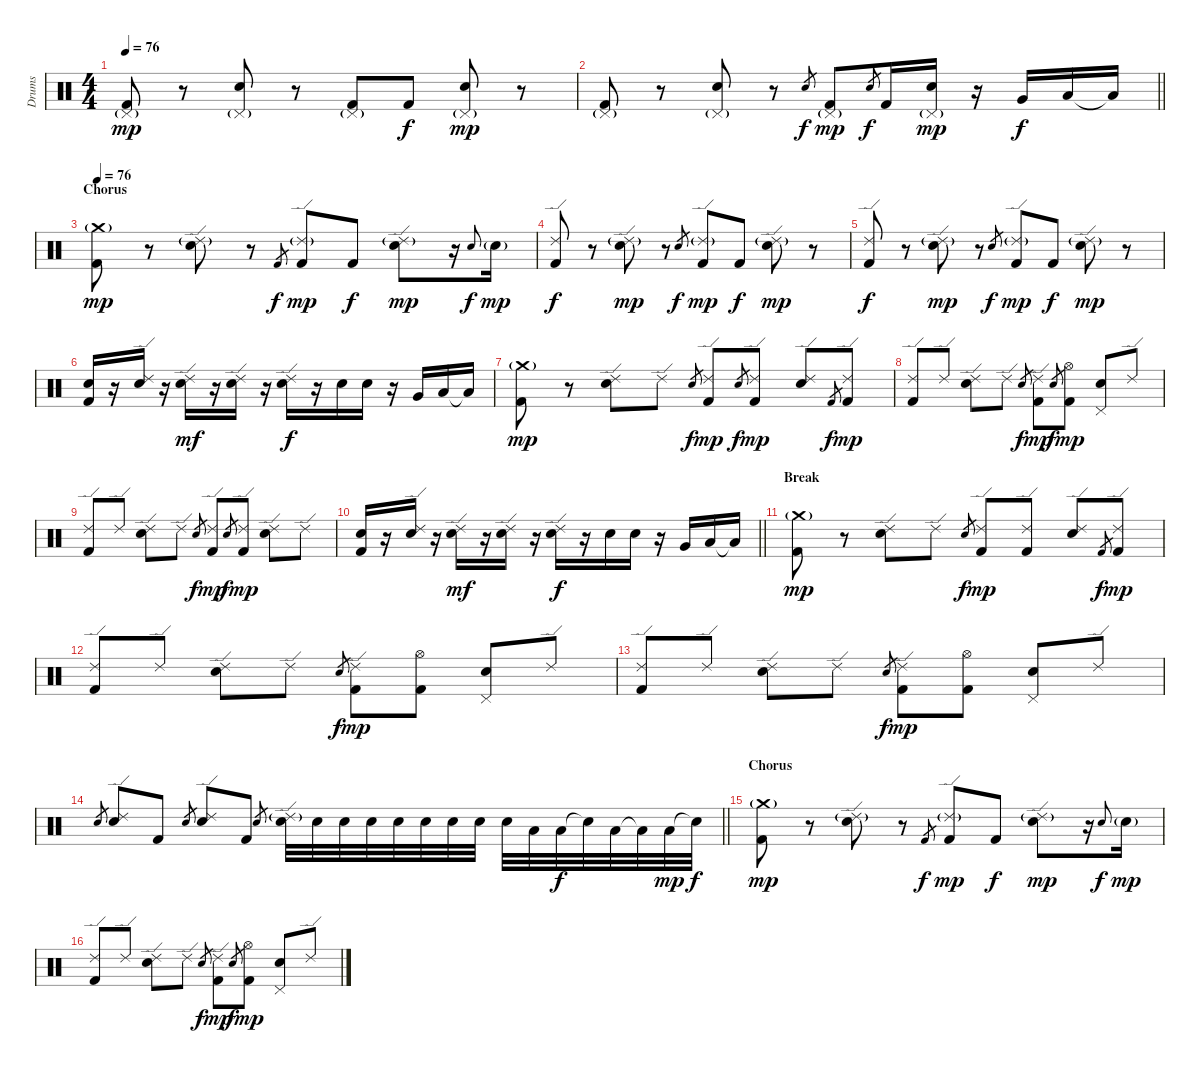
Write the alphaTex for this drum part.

\track ("Drums" "Drums") {instrument percussion}
\staff {score}
\articulation defaults
\ts (4 4)
\tempo 76
\clef neutral
\ks c
("Pedal Hi-Hat (hit)"{g} "Kick (hit) 2").8{dy mp} r.8 ("Pedal Hi-Hat (hit)"{g} "Snare (hit) 2").8 r.8 ("Pedal Hi-Hat (hit)"{g} "Kick (hit) 2").8 "Kick (hit) 2".8{dy f} ("Pedal Hi-Hat (hit)"{g} "Snare (hit) 2").8{dy mp} r.8 |
\barLineRight lightlight
("Pedal Hi-Hat (hit)"{g} "Kick (hit) 2").8 r.8 ("Pedal Hi-Hat (hit)"{g} "Snare (hit) 2").8 r.8 "Snare (hit) 2".8{gr dy f} ("Pedal Hi-Hat (hit)"{g} "Kick (hit) 2").8{dy mp} "Snare (hit) 2".8{gr dy f} "Kick (hit) 2".16 ("Pedal Hi-Hat (hit)"{g} "Snare (hit) 2").16{dy mp} r.16 "Very Low Tom (hit)".16{dy f} "Low Floor Tom (hit)".16 "Low Floor Tom (hit)"{t}.16 |
\section ("" "Chorus")
\tempo 76
("Crash medium (hit)"{g} "Kick (hit) 2").8{dy mp} r.8 ("Ride (edge) 2"{g} "Snare (hit) 2").8 r.8 "Kick (hit) 2".8{gr dy f} ("Ride (edge) 2"{g} "Kick (hit) 2").8{dy mp} "Kick (hit) 2".8{dy f} ("Ride (edge) 2"{g} "Snare (hit) 2").8{dy mp} r.16 "Snare (hit) 2".8{gr onbeat dy f} "Snare (hit) 2"{g}.16{dy mp} |
("Ride (edge) 2" "Kick (hit) 2").8{dy f} r.8 ("Ride (edge) 2"{g} "Snare (hit) 2").8{dy mp} r.8 "Snare (hit) 2".8{gr dy f} ("Ride (edge) 2"{g} "Kick (hit) 2").8{dy mp} "Kick (hit) 2".8{dy f} ("Ride (edge) 2"{g} "Snare (hit) 2").8{dy mp} r.8 |
("Ride (edge) 2" "Kick (hit) 2").8{dy f} r.8 ("Ride (edge) 2"{g} "Snare (hit) 2").8{dy mp} r.8 "Snare (hit) 2".8{gr dy f} ("Ride (edge) 2"{g} "Kick (hit) 2").8{dy mp} "Kick (hit) 2".8{dy f} ("Ride (edge) 2"{g} "Snare (hit) 2").8{dy mp} r.8 |
("Snare (hit) 2" "Kick (hit) 2").16 r.16 ("Ride (edge) 2" "Snare (hit) 2").16 r.16 ("Ride (edge) 2" "Snare (hit) 2").16{dy mf} r.16 ("Ride (edge) 2" "Snare (hit) 2").16 r.16 ("Ride (edge) 2" "Snare (hit) 2").16{dy f} r.16 "Snare (hit) 2".16 "Snare (hit) 2".16 r.16 "Very Low Tom (hit)".16 "Low Floor Tom (hit)".16 "Low Floor Tom (hit)"{t}.16 |
("Crash medium (hit)"{g} "Kick (hit) 2").8{dy mp} r.8 ("Ride (edge) 2" "Snare (hit) 2").8 "Ride (edge) 2".8 "Snare (hit) 2".8{gr dy f} ("Ride (edge) 2" "Kick (hit) 2").8{dy mp} "Snare (hit) 2".8{gr dy f} ("Ride (edge) 2" "Kick (hit) 2").8{dy mp} ("Ride (edge) 2" "Snare (hit) 2").8 "Kick (hit) 2".8{gr dy f} ("Ride (edge) 2" "Kick (hit) 2").8{dy mp} |
("Ride (edge) 2" "Kick (hit) 2").8 "Ride (edge) 2".8 ("Ride (edge) 2" "Snare (hit) 2").8 "Ride (edge) 2".8 "Snare (hit) 2".8{gr dy f} ("Ride (edge) 2" "Kick (hit) 2").8{dy mp} "Snare (hit) 2".8{gr dy f} ("Hi-Hat (open)" "Kick (hit) 2").8{dy mp} ("Pedal Hi-Hat (hit)" "Snare (hit) 2").8 "Ride (edge) 2".8 |
("Ride (edge) 2" "Kick (hit) 2").8 "Ride (edge) 2".8 ("Ride (edge) 2" "Snare (hit) 2").8 "Ride (edge) 2".8 "Snare (hit) 2".8{gr dy f} ("Ride (edge) 2" "Kick (hit) 2").8{dy mp} "Snare (hit) 2".8{gr dy f} ("Ride (edge) 2" "Kick (hit) 2").8{dy mp} ("Ride (edge) 2" "Snare (hit) 2").8 "Ride (edge) 2".8 |
\barLineRight lightlight
("Snare (hit) 2" "Kick (hit) 2").16 r.16 ("Ride (edge) 2" "Snare (hit) 2").16 r.16 ("Ride (edge) 2" "Snare (hit) 2").16{dy mf} r.16 ("Ride (edge) 2" "Snare (hit) 2").16 r.16 ("Ride (edge) 2" "Snare (hit) 2").16{dy f} r.16 "Snare (hit) 2".16 "Snare (hit) 2".16 r.16 "Very Low Tom (hit)".16 "Low Floor Tom (hit)".16 "Low Floor Tom (hit)"{t}.16 |
\section ("" "Break")
("Crash medium (hit)"{g} "Kick (hit) 2").8{dy mp} r.8 ("Ride (edge) 2" "Snare (hit) 2").8 "Ride (edge) 2".8 "Snare (hit) 2".8{gr dy f} ("Ride (edge) 2" "Kick (hit) 2").8{dy mp} ("Ride (edge) 2" "Kick (hit) 2").8 ("Ride (edge) 2" "Snare (hit) 2").8 "Kick (hit) 2".8{gr dy f} ("Ride (edge) 2" "Kick (hit) 2").8{dy mp} |
("Ride (edge) 2" "Kick (hit) 2").8 "Ride (edge) 2".8 ("Ride (edge) 2" "Snare (hit) 2").8 "Ride (edge) 2".8 "Snare (hit) 2".8{gr dy f} ("Ride (edge) 2" "Kick (hit) 2").8{dy mp} ("Hi-Hat (open)" "Kick (hit) 2").8 ("Pedal Hi-Hat (hit)" "Snare (hit) 2").8 "Ride (edge) 2".8 |
("Ride (edge) 2" "Kick (hit) 2").8 "Ride (edge) 2".8 ("Ride (edge) 2" "Snare (hit) 2").8 "Ride (edge) 2".8 "Snare (hit) 2".8{gr dy f} ("Ride (edge) 2" "Kick (hit) 2").8{dy mp} ("Hi-Hat (open)" "Kick (hit) 2").8 ("Pedal Hi-Hat (hit)" "Snare (hit) 2").8 "Ride (edge) 2".8 |
\barLineRight lightlight "Snare (hit) 2".8{gr}
("Ride (edge) 2" "Snare (hit) 2").8 "Kick (hit) 2".8 "Snare (hit) 2".8{gr} ("Ride (edge) 2" "Snare (hit) 2").8 "Kick (hit) 2".8 "Snare (hit) 2".8{gr} ("Ride (edge) 2"{g} "Snare (hit) 2").32 "Snare (hit) 2".32 "Snare (hit) 2".32 "Snare (hit) 2".32 "Snare (hit) 2".32 "Snare (hit) 2".32 "Snare (hit) 2".32 "Snare (hit) 2".32 "Snare (hit) 2".32 "Low Tom (hit)".32 "Low Tom (hit)".32{dy f} "Snare (hit)"{t}.32 "Low Floor Tom (hit)".32 "Low Floor Tom (hit)"{t}.32 "Low Floor Tom (hit)".32{dy mp} "Snare (hit)"{t}.32{dy f} |
\section ("" "Chorus")
("Crash medium (hit)"{g} "Kick (hit) 2").8{dy mp} r.8 ("Ride (edge) 2"{g} "Snare (hit) 2").8 r.8 "Kick (hit) 2".8{gr dy f} ("Ride (edge) 2"{g} "Kick (hit) 2").8{dy mp} "Kick (hit) 2".8{dy f} ("Ride (edge) 2"{g} "Snare (hit) 2").8{dy mp} r.16 "Snare (hit) 2".8{gr onbeat dy f} "Snare (hit) 2"{g}.16{dy mp} |
("Ride (edge) 2" "Kick (hit) 2").8 "Ride (edge) 2".8 ("Ride (edge) 2" "Snare (hit) 2").8 "Ride (edge) 2".8 "Snare (hit) 2".8{gr dy f} ("Ride (edge) 2" "Kick (hit) 2").8{dy mp} "Snare (hit) 2".8{gr dy f} ("Hi-Hat (open)" "Kick (hit) 2").8{dy mp} ("Pedal Hi-Hat (hit)" "Snare (hit) 2").8 "Ride (edge) 2".8
